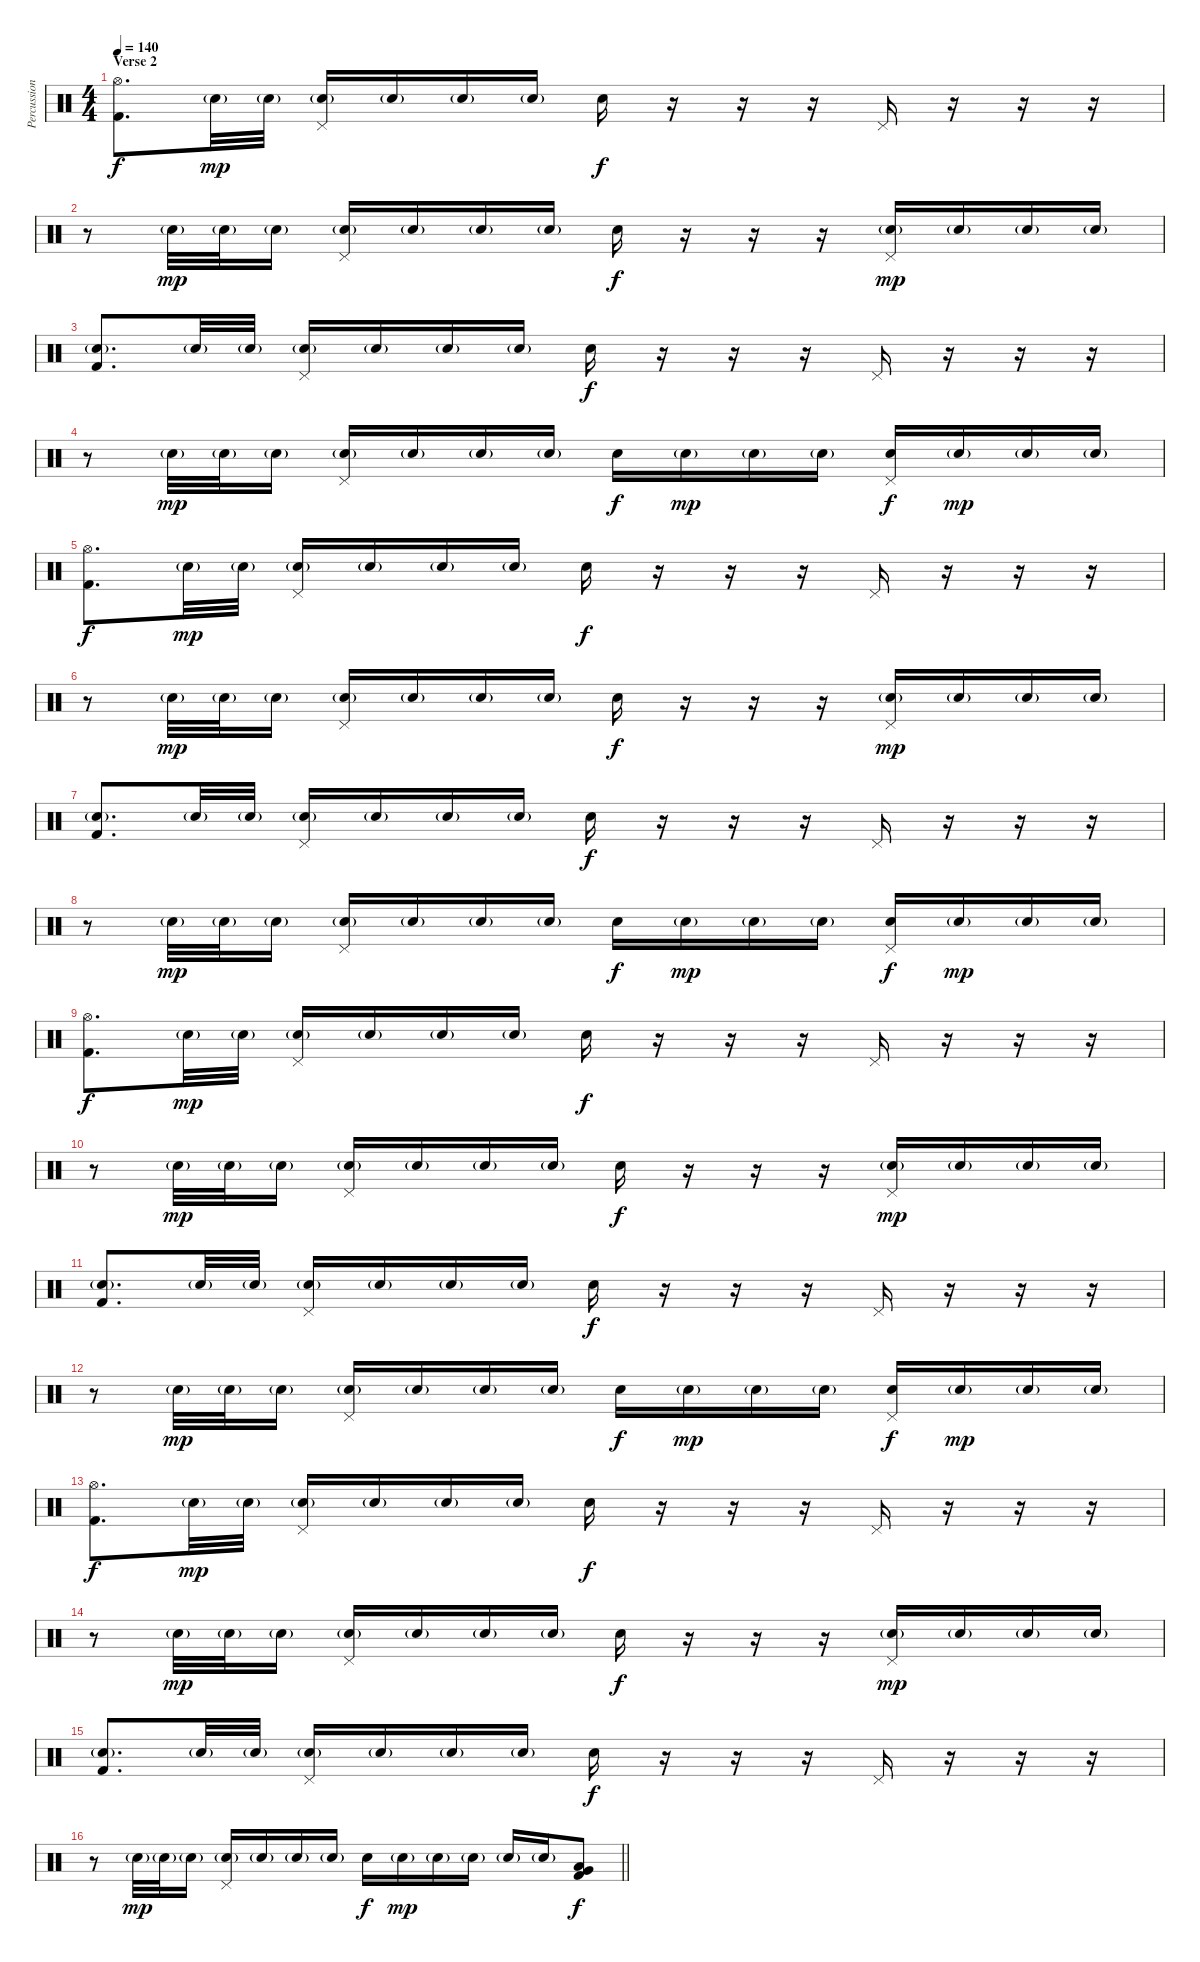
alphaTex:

\track ("Percussion" "Percussion") {instrument percussion}
\staff {score}
\articulation defaults
\ts (4 4)
\section ("" "Verse 2")
\tempo 140
\clef neutral
\ks c
("Hi-Hat (open)" "Kick (hit) 2").8{d dy f} "Electric Snare (hit)"{g}.32{dy mp} "Electric Snare (hit)"{g}.32 ("Pedal Hi-Hat (hit)" "Electric Snare (hit)"{g}).16 "Electric Snare (hit)"{g}.16 "Electric Snare (hit)"{g}.16 "Electric Snare (hit)"{g}.16 "Electric Snare (hit)".16{dy f} r.16 r.16 r.16 "Pedal Hi-Hat (hit)".16 r.16 r.16 r.16 |
r.8 "Electric Snare (hit)"{g}.32{dy mp} "Electric Snare (hit)"{g}.32 "Electric Snare (hit)"{g}.16 ("Pedal Hi-Hat (hit)" "Electric Snare (hit)"{g}).16 "Electric Snare (hit)"{g}.16 "Electric Snare (hit)"{g}.16 "Electric Snare (hit)"{g}.16 "Electric Snare (hit)".16{dy f} r.16 r.16 r.16 ("Pedal Hi-Hat (hit)" "Electric Snare (hit)"{g}).16{dy mp} "Electric Snare (hit)"{g}.16 "Electric Snare (hit)"{g}.16 "Electric Snare (hit)"{g}.16 |
("Electric Snare (hit)"{g} "Kick (hit) 2").8{d} "Electric Snare (hit)"{g}.32 "Electric Snare (hit)"{g}.32 ("Pedal Hi-Hat (hit)" "Electric Snare (hit)"{g}).16 "Electric Snare (hit)"{g}.16 "Electric Snare (hit)"{g}.16 "Electric Snare (hit)"{g}.16 "Electric Snare (hit)".16{dy f} r.16 r.16 r.16 "Pedal Hi-Hat (hit)".16 r.16 r.16 r.16 |
r.8 "Electric Snare (hit)"{g}.32{dy mp} "Electric Snare (hit)"{g}.32 "Electric Snare (hit)"{g}.16 ("Pedal Hi-Hat (hit)" "Electric Snare (hit)"{g}).16 "Electric Snare (hit)"{g}.16 "Electric Snare (hit)"{g}.16 "Electric Snare (hit)"{g}.16 "Electric Snare (hit)".16{dy f} "Electric Snare (hit)"{g}.16{dy mp} "Electric Snare (hit)"{g}.16 "Electric Snare (hit)"{g}.16 ("Pedal Hi-Hat (hit)" "Electric Snare (hit)").16{dy f} "Electric Snare (hit)"{g}.16{dy mp} "Electric Snare (hit)"{g}.16 "Electric Snare (hit)"{g}.16 |
("Hi-Hat (open)" "Kick (hit) 2").8{d dy f} "Electric Snare (hit)"{g}.32{dy mp} "Electric Snare (hit)"{g}.32 ("Pedal Hi-Hat (hit)" "Electric Snare (hit)"{g}).16 "Electric Snare (hit)"{g}.16 "Electric Snare (hit)"{g}.16 "Electric Snare (hit)"{g}.16 "Electric Snare (hit)".16{dy f} r.16 r.16 r.16 "Pedal Hi-Hat (hit)".16 r.16 r.16 r.16 |
r.8 "Electric Snare (hit)"{g}.32{dy mp} "Electric Snare (hit)"{g}.32 "Electric Snare (hit)"{g}.16 ("Pedal Hi-Hat (hit)" "Electric Snare (hit)"{g}).16 "Electric Snare (hit)"{g}.16 "Electric Snare (hit)"{g}.16 "Electric Snare (hit)"{g}.16 "Electric Snare (hit)".16{dy f} r.16 r.16 r.16 ("Pedal Hi-Hat (hit)" "Electric Snare (hit)"{g}).16{dy mp} "Electric Snare (hit)"{g}.16 "Electric Snare (hit)"{g}.16 "Electric Snare (hit)"{g}.16 |
("Electric Snare (hit)"{g} "Kick (hit) 2").8{d} "Electric Snare (hit)"{g}.32 "Electric Snare (hit)"{g}.32 ("Pedal Hi-Hat (hit)" "Electric Snare (hit)"{g}).16 "Electric Snare (hit)"{g}.16 "Electric Snare (hit)"{g}.16 "Electric Snare (hit)"{g}.16 "Electric Snare (hit)".16{dy f} r.16 r.16 r.16 "Pedal Hi-Hat (hit)".16 r.16 r.16 r.16 |
r.8 "Electric Snare (hit)"{g}.32{dy mp} "Electric Snare (hit)"{g}.32 "Electric Snare (hit)"{g}.16 ("Pedal Hi-Hat (hit)" "Electric Snare (hit)"{g}).16 "Electric Snare (hit)"{g}.16 "Electric Snare (hit)"{g}.16 "Electric Snare (hit)"{g}.16 "Electric Snare (hit)".16{dy f} "Electric Snare (hit)"{g}.16{dy mp} "Electric Snare (hit)"{g}.16 "Electric Snare (hit)"{g}.16 ("Pedal Hi-Hat (hit)" "Electric Snare (hit)").16{dy f} "Electric Snare (hit)"{g}.16{dy mp} "Electric Snare (hit)"{g}.16 "Electric Snare (hit)"{g}.16 |
("Hi-Hat (open)" "Kick (hit) 2").8{d dy f} "Electric Snare (hit)"{g}.32{dy mp} "Electric Snare (hit)"{g}.32 ("Pedal Hi-Hat (hit)" "Electric Snare (hit)"{g}).16 "Electric Snare (hit)"{g}.16 "Electric Snare (hit)"{g}.16 "Electric Snare (hit)"{g}.16 "Electric Snare (hit)".16{dy f} r.16 r.16 r.16 "Pedal Hi-Hat (hit)".16 r.16 r.16 r.16 |
r.8 "Electric Snare (hit)"{g}.32{dy mp} "Electric Snare (hit)"{g}.32 "Electric Snare (hit)"{g}.16 ("Pedal Hi-Hat (hit)" "Electric Snare (hit)"{g}).16 "Electric Snare (hit)"{g}.16 "Electric Snare (hit)"{g}.16 "Electric Snare (hit)"{g}.16 "Electric Snare (hit)".16{dy f} r.16 r.16 r.16 ("Pedal Hi-Hat (hit)" "Electric Snare (hit)"{g}).16{dy mp} "Electric Snare (hit)"{g}.16 "Electric Snare (hit)"{g}.16 "Electric Snare (hit)"{g}.16 |
("Electric Snare (hit)"{g} "Kick (hit) 2").8{d} "Electric Snare (hit)"{g}.32 "Electric Snare (hit)"{g}.32 ("Pedal Hi-Hat (hit)" "Electric Snare (hit)"{g}).16 "Electric Snare (hit)"{g}.16 "Electric Snare (hit)"{g}.16 "Electric Snare (hit)"{g}.16 "Electric Snare (hit)".16{dy f} r.16 r.16 r.16 "Pedal Hi-Hat (hit)".16 r.16 r.16 r.16 |
r.8 "Electric Snare (hit)"{g}.32{dy mp} "Electric Snare (hit)"{g}.32 "Electric Snare (hit)"{g}.16 ("Pedal Hi-Hat (hit)" "Electric Snare (hit)"{g}).16 "Electric Snare (hit)"{g}.16 "Electric Snare (hit)"{g}.16 "Electric Snare (hit)"{g}.16 "Electric Snare (hit)".16{dy f} "Electric Snare (hit)"{g}.16{dy mp} "Electric Snare (hit)"{g}.16 "Electric Snare (hit)"{g}.16 ("Pedal Hi-Hat (hit)" "Electric Snare (hit)").16{dy f} "Electric Snare (hit)"{g}.16{dy mp} "Electric Snare (hit)"{g}.16 "Electric Snare (hit)"{g}.16 |
("Hi-Hat (open)" "Kick (hit) 2").8{d dy f} "Electric Snare (hit)"{g}.32{dy mp} "Electric Snare (hit)"{g}.32 ("Pedal Hi-Hat (hit)" "Electric Snare (hit)"{g}).16 "Electric Snare (hit)"{g}.16 "Electric Snare (hit)"{g}.16 "Electric Snare (hit)"{g}.16 "Electric Snare (hit)".16{dy f} r.16 r.16 r.16 "Pedal Hi-Hat (hit)".16 r.16 r.16 r.16 |
r.8 "Electric Snare (hit)"{g}.32{dy mp} "Electric Snare (hit)"{g}.32 "Electric Snare (hit)"{g}.16 ("Pedal Hi-Hat (hit)" "Electric Snare (hit)"{g}).16 "Electric Snare (hit)"{g}.16 "Electric Snare (hit)"{g}.16 "Electric Snare (hit)"{g}.16 "Electric Snare (hit)".16{dy f} r.16 r.16 r.16 ("Pedal Hi-Hat (hit)" "Electric Snare (hit)"{g}).16{dy mp} "Electric Snare (hit)"{g}.16 "Electric Snare (hit)"{g}.16 "Electric Snare (hit)"{g}.16 |
("Electric Snare (hit)"{g} "Kick (hit) 2").8{d} "Electric Snare (hit)"{g}.32 "Electric Snare (hit)"{g}.32 ("Pedal Hi-Hat (hit)" "Electric Snare (hit)"{g}).16 "Electric Snare (hit)"{g}.16 "Electric Snare (hit)"{g}.16 "Electric Snare (hit)"{g}.16 "Electric Snare (hit)".16{dy f} r.16 r.16 r.16 "Pedal Hi-Hat (hit)".16 r.16 r.16 r.16 |
\barLineRight lightlight
r.8 "Electric Snare (hit)"{g}.32{dy mp} "Electric Snare (hit)"{g}.32 "Electric Snare (hit)"{g}.16 ("Pedal Hi-Hat (hit)" "Electric Snare (hit)"{g}).16 "Electric Snare (hit)"{g}.16 "Electric Snare (hit)"{g}.16 "Electric Snare (hit)"{g}.16 "Electric Snare (hit)".16{dy f} "Electric Snare (hit)"{g}.16{dy mp} "Electric Snare (hit)"{g}.16 "Electric Snare (hit)"{g}.16 "Electric Snare (hit)"{g}.16 "Electric Snare (hit)"{g}.16 ("Very Low Tom (hit)" "Low Floor Tom (hit)" "Kick (hit) 2").8{dy f}
